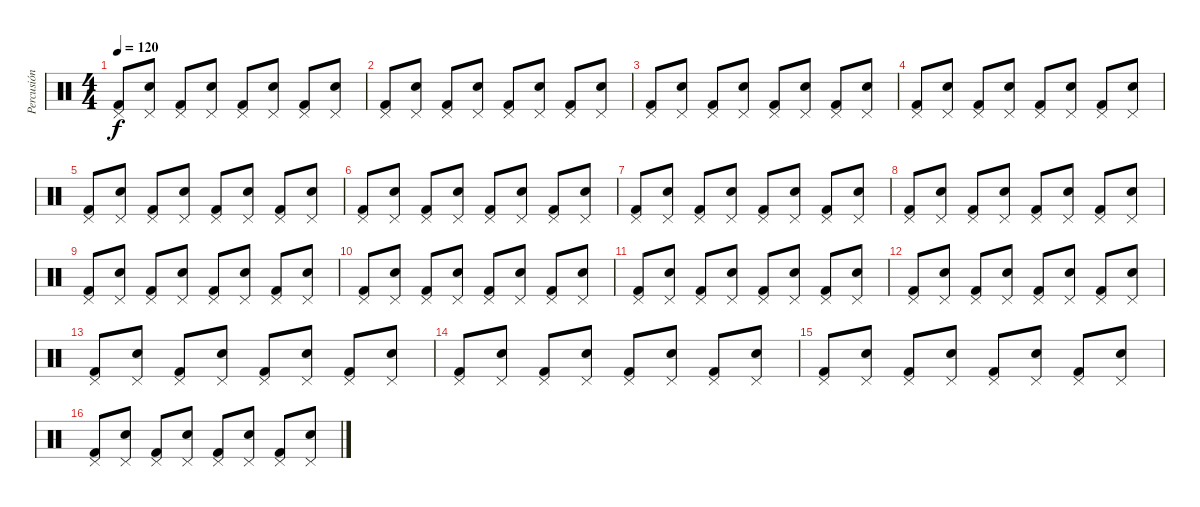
\track ("Percusión" "Percusión") {instrument percussion}
\staff {score}
\articulation defaults
\ts (4 4)
\tempo 120
\clef neutral
\ks c
("Pedal Hi-Hat (hit)" "Kick (hit) 2").8{dy f} ("Pedal Hi-Hat (hit)" "Electric Snare (hit)").8 ("Pedal Hi-Hat (hit)" "Kick (hit) 2").8 ("Pedal Hi-Hat (hit)" "Electric Snare (hit)").8 ("Pedal Hi-Hat (hit)" "Kick (hit) 2").8 ("Pedal Hi-Hat (hit)" "Electric Snare (hit)").8 ("Pedal Hi-Hat (hit)" "Kick (hit) 2").8 ("Pedal Hi-Hat (hit)" "Electric Snare (hit)").8 |
("Pedal Hi-Hat (hit)" "Kick (hit) 2").8 ("Pedal Hi-Hat (hit)" "Electric Snare (hit)").8 ("Pedal Hi-Hat (hit)" "Kick (hit) 2").8 ("Pedal Hi-Hat (hit)" "Electric Snare (hit)").8 ("Pedal Hi-Hat (hit)" "Kick (hit) 2").8 ("Pedal Hi-Hat (hit)" "Electric Snare (hit)").8 ("Pedal Hi-Hat (hit)" "Kick (hit) 2").8 ("Pedal Hi-Hat (hit)" "Electric Snare (hit)").8 |
("Pedal Hi-Hat (hit)" "Kick (hit) 2").8 ("Pedal Hi-Hat (hit)" "Electric Snare (hit)").8 ("Pedal Hi-Hat (hit)" "Kick (hit) 2").8 ("Pedal Hi-Hat (hit)" "Electric Snare (hit)").8 ("Pedal Hi-Hat (hit)" "Kick (hit) 2").8 ("Pedal Hi-Hat (hit)" "Electric Snare (hit)").8 ("Pedal Hi-Hat (hit)" "Kick (hit) 2").8 ("Pedal Hi-Hat (hit)" "Electric Snare (hit)").8 |
("Pedal Hi-Hat (hit)" "Kick (hit) 2").8 ("Pedal Hi-Hat (hit)" "Electric Snare (hit)").8 ("Pedal Hi-Hat (hit)" "Kick (hit) 2").8 ("Pedal Hi-Hat (hit)" "Electric Snare (hit)").8 ("Pedal Hi-Hat (hit)" "Kick (hit) 2").8 ("Pedal Hi-Hat (hit)" "Electric Snare (hit)").8 ("Pedal Hi-Hat (hit)" "Kick (hit) 2").8 ("Pedal Hi-Hat (hit)" "Electric Snare (hit)").8 |
("Pedal Hi-Hat (hit)" "Kick (hit) 2").8 ("Pedal Hi-Hat (hit)" "Electric Snare (hit)").8 ("Pedal Hi-Hat (hit)" "Kick (hit) 2").8 ("Pedal Hi-Hat (hit)" "Electric Snare (hit)").8 ("Pedal Hi-Hat (hit)" "Kick (hit) 2").8 ("Pedal Hi-Hat (hit)" "Electric Snare (hit)").8 ("Pedal Hi-Hat (hit)" "Kick (hit) 2").8 ("Pedal Hi-Hat (hit)" "Electric Snare (hit)").8 |
("Pedal Hi-Hat (hit)" "Kick (hit) 2").8 ("Pedal Hi-Hat (hit)" "Electric Snare (hit)").8 ("Pedal Hi-Hat (hit)" "Kick (hit) 2").8 ("Pedal Hi-Hat (hit)" "Electric Snare (hit)").8 ("Pedal Hi-Hat (hit)" "Kick (hit) 2").8 ("Pedal Hi-Hat (hit)" "Electric Snare (hit)").8 ("Pedal Hi-Hat (hit)" "Kick (hit) 2").8 ("Pedal Hi-Hat (hit)" "Electric Snare (hit)").8 |
("Pedal Hi-Hat (hit)" "Kick (hit) 2").8 ("Pedal Hi-Hat (hit)" "Electric Snare (hit)").8 ("Pedal Hi-Hat (hit)" "Kick (hit) 2").8 ("Pedal Hi-Hat (hit)" "Electric Snare (hit)").8 ("Pedal Hi-Hat (hit)" "Kick (hit) 2").8 ("Pedal Hi-Hat (hit)" "Electric Snare (hit)").8 ("Pedal Hi-Hat (hit)" "Kick (hit) 2").8 ("Pedal Hi-Hat (hit)" "Electric Snare (hit)").8 |
("Pedal Hi-Hat (hit)" "Kick (hit) 2").8 ("Pedal Hi-Hat (hit)" "Electric Snare (hit)").8 ("Pedal Hi-Hat (hit)" "Kick (hit) 2").8 ("Pedal Hi-Hat (hit)" "Electric Snare (hit)").8 ("Pedal Hi-Hat (hit)" "Kick (hit) 2").8 ("Pedal Hi-Hat (hit)" "Electric Snare (hit)").8 ("Pedal Hi-Hat (hit)" "Kick (hit) 2").8 ("Pedal Hi-Hat (hit)" "Electric Snare (hit)").8 |
("Pedal Hi-Hat (hit)" "Kick (hit) 2").8 ("Pedal Hi-Hat (hit)" "Electric Snare (hit)").8 ("Pedal Hi-Hat (hit)" "Kick (hit) 2").8 ("Pedal Hi-Hat (hit)" "Electric Snare (hit)").8 ("Pedal Hi-Hat (hit)" "Kick (hit) 2").8 ("Pedal Hi-Hat (hit)" "Electric Snare (hit)").8 ("Pedal Hi-Hat (hit)" "Kick (hit) 2").8 ("Pedal Hi-Hat (hit)" "Electric Snare (hit)").8 |
("Pedal Hi-Hat (hit)" "Kick (hit) 2").8 ("Pedal Hi-Hat (hit)" "Electric Snare (hit)").8 ("Pedal Hi-Hat (hit)" "Kick (hit) 2").8 ("Pedal Hi-Hat (hit)" "Electric Snare (hit)").8 ("Pedal Hi-Hat (hit)" "Kick (hit) 2").8 ("Pedal Hi-Hat (hit)" "Electric Snare (hit)").8 ("Pedal Hi-Hat (hit)" "Kick (hit) 2").8 ("Pedal Hi-Hat (hit)" "Electric Snare (hit)").8 |
("Pedal Hi-Hat (hit)" "Kick (hit) 2").8 ("Pedal Hi-Hat (hit)" "Electric Snare (hit)").8 ("Pedal Hi-Hat (hit)" "Kick (hit) 2").8 ("Pedal Hi-Hat (hit)" "Electric Snare (hit)").8 ("Pedal Hi-Hat (hit)" "Kick (hit) 2").8 ("Pedal Hi-Hat (hit)" "Electric Snare (hit)").8 ("Pedal Hi-Hat (hit)" "Kick (hit) 2").8 ("Pedal Hi-Hat (hit)" "Electric Snare (hit)").8 |
("Pedal Hi-Hat (hit)" "Kick (hit) 2").8 ("Pedal Hi-Hat (hit)" "Electric Snare (hit)").8 ("Pedal Hi-Hat (hit)" "Kick (hit) 2").8 ("Pedal Hi-Hat (hit)" "Electric Snare (hit)").8 ("Pedal Hi-Hat (hit)" "Kick (hit) 2").8 ("Pedal Hi-Hat (hit)" "Electric Snare (hit)").8 ("Pedal Hi-Hat (hit)" "Kick (hit) 2").8 ("Pedal Hi-Hat (hit)" "Electric Snare (hit)").8 |
("Pedal Hi-Hat (hit)" "Kick (hit) 2").8 ("Pedal Hi-Hat (hit)" "Electric Snare (hit)").8 ("Pedal Hi-Hat (hit)" "Kick (hit) 2").8 ("Pedal Hi-Hat (hit)" "Electric Snare (hit)").8 ("Pedal Hi-Hat (hit)" "Kick (hit) 2").8 ("Pedal Hi-Hat (hit)" "Electric Snare (hit)").8 ("Pedal Hi-Hat (hit)" "Kick (hit) 2").8 ("Pedal Hi-Hat (hit)" "Electric Snare (hit)").8 |
("Pedal Hi-Hat (hit)" "Kick (hit) 2").8 ("Pedal Hi-Hat (hit)" "Electric Snare (hit)").8 ("Pedal Hi-Hat (hit)" "Kick (hit) 2").8 ("Pedal Hi-Hat (hit)" "Electric Snare (hit)").8 ("Pedal Hi-Hat (hit)" "Kick (hit) 2").8 ("Pedal Hi-Hat (hit)" "Electric Snare (hit)").8 ("Pedal Hi-Hat (hit)" "Kick (hit) 2").8 ("Pedal Hi-Hat (hit)" "Electric Snare (hit)").8 |
("Pedal Hi-Hat (hit)" "Kick (hit) 2").8 ("Pedal Hi-Hat (hit)" "Electric Snare (hit)").8 ("Pedal Hi-Hat (hit)" "Kick (hit) 2").8 ("Pedal Hi-Hat (hit)" "Electric Snare (hit)").8 ("Pedal Hi-Hat (hit)" "Kick (hit) 2").8 ("Pedal Hi-Hat (hit)" "Electric Snare (hit)").8 ("Pedal Hi-Hat (hit)" "Kick (hit) 2").8 ("Pedal Hi-Hat (hit)" "Electric Snare (hit)").8 |
("Pedal Hi-Hat (hit)" "Kick (hit) 2").8 ("Pedal Hi-Hat (hit)" "Electric Snare (hit)").8 ("Pedal Hi-Hat (hit)" "Kick (hit) 2").8 ("Pedal Hi-Hat (hit)" "Electric Snare (hit)").8 ("Pedal Hi-Hat (hit)" "Kick (hit) 2").8 ("Pedal Hi-Hat (hit)" "Electric Snare (hit)").8 ("Pedal Hi-Hat (hit)" "Kick (hit) 2").8 ("Pedal Hi-Hat (hit)" "Electric Snare (hit)").8
